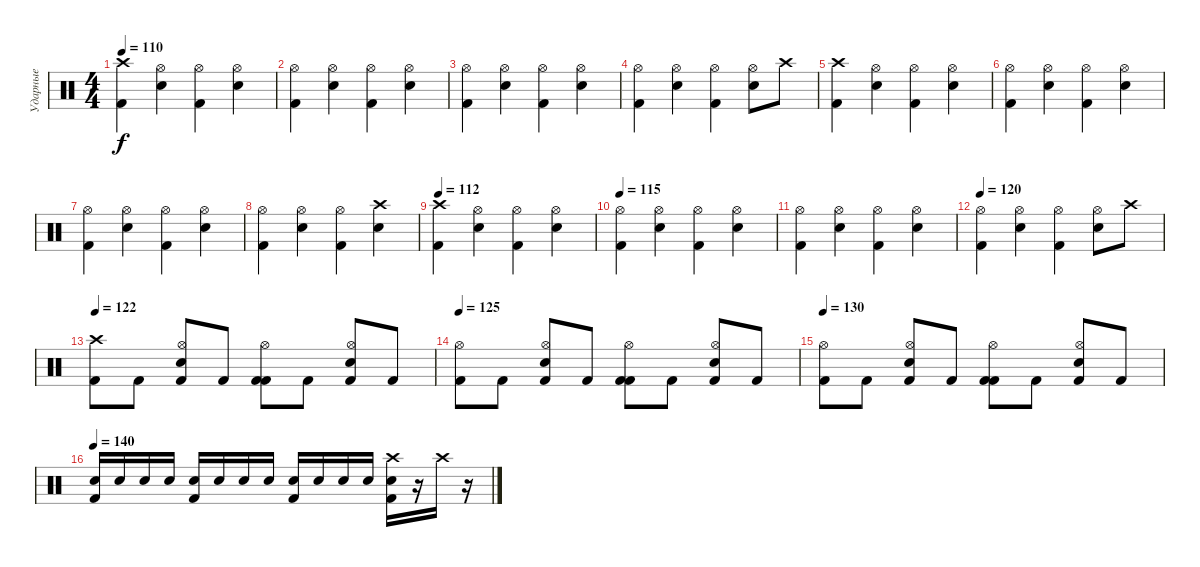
\track ("Ударные" "Ударные") {instrument percussion}
\staff {score}
\articulation defaults
\ts (4 4)
\tempo 110
\clef neutral
\ks c
("Crash high (hit)" "Kick (hit) 2").4{dy f} ("Hi-Hat (open)" "Snare (hit) 2").4 ("Hi-Hat (open)" "Kick (hit) 2").4 ("Hi-Hat (open)" "Snare (hit) 2").4 |
("Hi-Hat (open)" "Kick (hit) 2").4 ("Hi-Hat (open)" "Snare (hit) 2").4 ("Hi-Hat (open)" "Kick (hit) 2").4 ("Hi-Hat (open)" "Snare (hit) 2").4 |
("Hi-Hat (open)" "Kick (hit) 2").4 ("Hi-Hat (open)" "Snare (hit) 2").4 ("Hi-Hat (open)" "Kick (hit) 2").4 ("Hi-Hat (open)" "Snare (hit) 2").4 |
("Hi-Hat (open)" "Kick (hit) 2").4 ("Hi-Hat (open)" "Snare (hit) 2").4 ("Hi-Hat (open)" "Kick (hit) 2").4 ("Hi-Hat (open)" "Snare (hit) 2").8 "Crash high (hit)".8 |
("Crash high (hit)" "Kick (hit) 2").4 ("Hi-Hat (open)" "Snare (hit) 2").4 ("Hi-Hat (open)" "Kick (hit) 2").4 ("Hi-Hat (open)" "Snare (hit) 2").4 |
("Hi-Hat (open)" "Kick (hit) 2").4 ("Hi-Hat (open)" "Snare (hit) 2").4 ("Hi-Hat (open)" "Kick (hit) 2").4 ("Hi-Hat (open)" "Snare (hit) 2").4 |
("Hi-Hat (open)" "Kick (hit) 2").4 ("Hi-Hat (open)" "Snare (hit) 2").4 ("Hi-Hat (open)" "Kick (hit) 2").4 ("Hi-Hat (open)" "Snare (hit) 2").4 |
("Hi-Hat (open)" "Kick (hit) 2").4 ("Hi-Hat (open)" "Snare (hit) 2").4 ("Hi-Hat (open)" "Kick (hit) 2").4 ("Crash high (hit)" "Snare (hit) 2").4 |
\tempo 112
("Crash high (hit)" "Kick (hit) 2").4 ("Hi-Hat (open)" "Snare (hit) 2").4 ("Hi-Hat (open)" "Kick (hit) 2").4 ("Hi-Hat (open)" "Snare (hit) 2").4 |
\tempo 115
("Hi-Hat (open)" "Kick (hit) 2").4 ("Hi-Hat (open)" "Snare (hit) 2").4 ("Hi-Hat (open)" "Kick (hit) 2").4 ("Hi-Hat (open)" "Snare (hit) 2").4 |
("Hi-Hat (open)" "Kick (hit) 2").4 ("Hi-Hat (open)" "Snare (hit) 2").4 ("Hi-Hat (open)" "Kick (hit) 2").4 ("Hi-Hat (open)" "Snare (hit) 2").4 |
\tempo 120
("Hi-Hat (open)" "Kick (hit) 2").4 ("Hi-Hat (open)" "Snare (hit) 2").4 ("Hi-Hat (open)" "Kick (hit) 2").4 ("Hi-Hat (open)" "Snare (hit) 2").8 "Crash high (hit)".8 |
\tempo 122
("Crash high (hit)" "Kick (hit) 2").8 "Kick (hit) 2".8 ("Hi-Hat (open)" "Snare (hit) 2" "Kick (hit) 2").8 "Kick (hit) 2".8 ("Hi-Hat (open)" "Kick (hit) 2" "Kick (hit) 2").8 "Kick (hit) 2".8 ("Hi-Hat (open)" "Snare (hit) 2" "Kick (hit) 2").8 "Kick (hit) 2".8 |
\tempo 125
("Hi-Hat (open)" "Kick (hit) 2").8 "Kick (hit) 2".8 ("Hi-Hat (open)" "Snare (hit) 2" "Kick (hit) 2").8 "Kick (hit) 2".8 ("Hi-Hat (open)" "Kick (hit) 2" "Kick (hit) 2").8 "Kick (hit) 2".8 ("Hi-Hat (open)" "Snare (hit) 2" "Kick (hit) 2").8 "Kick (hit) 2".8 |
\tempo 130
("Hi-Hat (open)" "Kick (hit) 2").8 "Kick (hit) 2".8 ("Hi-Hat (open)" "Snare (hit) 2" "Kick (hit) 2").8 "Kick (hit) 2".8 ("Hi-Hat (open)" "Kick (hit) 2" "Kick (hit) 2").8 "Kick (hit) 2".8 ("Hi-Hat (open)" "Snare (hit) 2" "Kick (hit) 2").8 "Kick (hit) 2".8 |
\tempo 140
("Kick (hit) 2" "Snare (hit) 2").16 "Snare (hit) 2".16 "Snare (hit) 2".16 "Snare (hit) 2".16 ("Kick (hit) 2" "Snare (hit) 2").16 "Snare (hit) 2".16 "Snare (hit) 2".16 "Snare (hit) 2".16 ("Kick (hit) 2" "Snare (hit) 2").16 "Snare (hit) 2".16 "Snare (hit) 2".16 "Snare (hit) 2".16 ("Kick (hit) 2" "Snare (hit) 2" "Crash high (hit)").16 r.16 "Crash high (hit)".16 r.16
